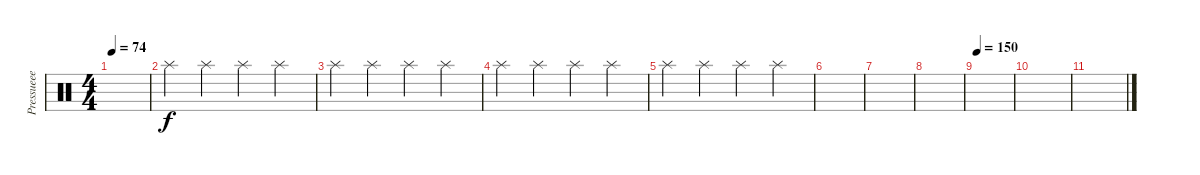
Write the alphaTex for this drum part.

\track ("Pressueee " "Pressueee ") {instrument percussion}
\staff {score}
\articulation defaults
\ts (4 4)
\tempo 74
\clef neutral
\ks c
|
"Splash (hit)".4 "Splash (hit)".4 "Splash (hit)".4 "Splash (hit)".4 |
"Splash (hit)".4 "Splash (hit)".4 "Splash (hit)".4 "Splash (hit)".4 |
"Splash (hit)".4 "Splash (hit)".4 "Splash (hit)".4 "Splash (hit)".4 |
"Splash (hit)".4 "Splash (hit)".4 "Splash (hit)".4 "Splash (hit)".4 |
|
|
|
\tempo 150
|
|
\section ("" "")
